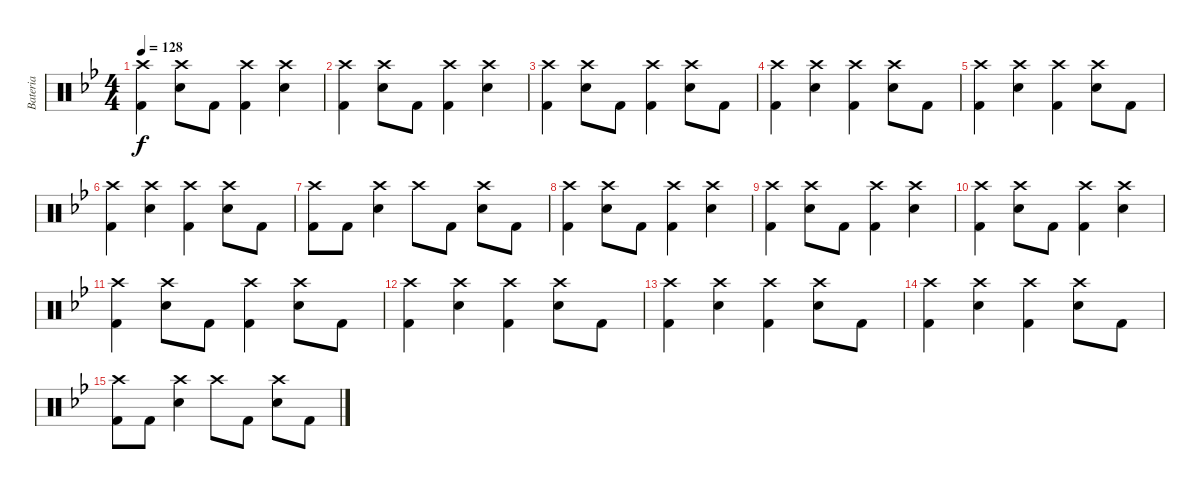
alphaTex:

\track ("Bateria" "Bateria") {instrument percussion}
\staff {score}
\articulation defaults
\ts (4 4)
\tempo 128
\clef neutral
\ks bb
("Crash high (hit)" "Kick (hit) 2").4{dy f} ("Crash high (hit)" "Snare (hit) 2").8 "Kick (hit) 2".8 ("Crash high (hit)" "Kick (hit) 2").4 ("Crash high (hit)" "Snare (hit) 2").4 |
("Crash high (hit)" "Kick (hit) 2").4 ("Crash high (hit)" "Snare (hit) 2").8 "Kick (hit) 2".8 ("Crash high (hit)" "Kick (hit) 2").4 ("Crash high (hit)" "Snare (hit) 2").4 |
("Crash high (hit)" "Kick (hit) 2").4 ("Crash high (hit)" "Snare (hit) 2").8 "Kick (hit) 2".8 ("Crash high (hit)" "Kick (hit) 2").4 ("Crash high (hit)" "Snare (hit) 2").8 "Kick (hit) 2".8 |
("Crash high (hit)" "Kick (hit) 2").4 ("Crash high (hit)" "Snare (hit) 2").4 ("Crash high (hit)" "Kick (hit) 2").4 ("Crash high (hit)" "Snare (hit) 2").8 "Kick (hit) 2".8 |
("Crash high (hit)" "Kick (hit) 2").4 ("Crash high (hit)" "Snare (hit) 2").4 ("Crash high (hit)" "Kick (hit) 2").4 ("Crash high (hit)" "Snare (hit) 2").8 "Kick (hit) 2".8 |
("Crash high (hit)" "Kick (hit) 2").4 ("Crash high (hit)" "Snare (hit) 2").4 ("Crash high (hit)" "Kick (hit) 2").4 ("Crash high (hit)" "Snare (hit) 2").8 "Kick (hit) 2".8 |
("Crash high (hit)" "Kick (hit) 2").8 "Kick (hit) 2".8 ("Crash high (hit)" "Snare (hit) 2").4 "Crash high (hit)".8 "Kick (hit) 2".8 ("Crash high (hit)" "Snare (hit) 2").8 "Kick (hit) 2".8 |
("Crash high (hit)" "Kick (hit) 2").4 ("Crash high (hit)" "Snare (hit) 2").8 "Kick (hit) 2".8 ("Crash high (hit)" "Kick (hit) 2").4 ("Crash high (hit)" "Snare (hit) 2").4 |
("Crash high (hit)" "Kick (hit) 2").4 ("Crash high (hit)" "Snare (hit) 2").8 "Kick (hit) 2".8 ("Crash high (hit)" "Kick (hit) 2").4 ("Crash high (hit)" "Snare (hit) 2").4 |
("Crash high (hit)" "Kick (hit) 2").4 ("Crash high (hit)" "Snare (hit) 2").8 "Kick (hit) 2".8 ("Crash high (hit)" "Kick (hit) 2").4 ("Crash high (hit)" "Snare (hit) 2").4 |
("Crash high (hit)" "Kick (hit) 2").4 ("Crash high (hit)" "Snare (hit) 2").8 "Kick (hit) 2".8 ("Crash high (hit)" "Kick (hit) 2").4 ("Crash high (hit)" "Snare (hit) 2").8 "Kick (hit) 2".8 |
("Crash high (hit)" "Kick (hit) 2").4 ("Crash high (hit)" "Snare (hit) 2").4 ("Crash high (hit)" "Kick (hit) 2").4 ("Crash high (hit)" "Snare (hit) 2").8 "Kick (hit) 2".8 |
("Crash high (hit)" "Kick (hit) 2").4 ("Crash high (hit)" "Snare (hit) 2").4 ("Crash high (hit)" "Kick (hit) 2").4 ("Crash high (hit)" "Snare (hit) 2").8 "Kick (hit) 2".8 |
("Crash high (hit)" "Kick (hit) 2").4 ("Crash high (hit)" "Snare (hit) 2").4 ("Crash high (hit)" "Kick (hit) 2").4 ("Crash high (hit)" "Snare (hit) 2").8 "Kick (hit) 2".8 |
("Crash high (hit)" "Kick (hit) 2").8 "Kick (hit) 2".8 ("Crash high (hit)" "Snare (hit) 2").4 "Crash high (hit)".8 "Kick (hit) 2".8 ("Crash high (hit)" "Snare (hit) 2").8 "Kick (hit) 2".8
